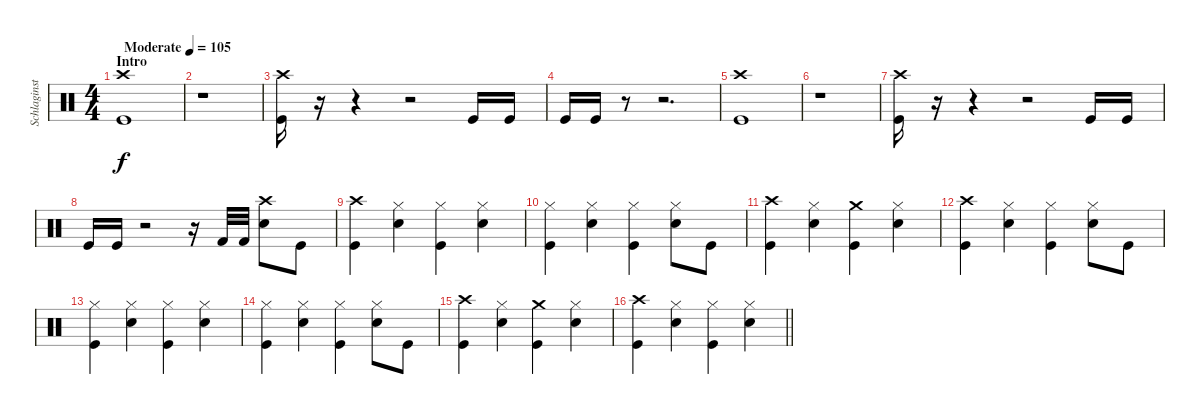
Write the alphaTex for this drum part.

\track ("Schlaginstrumente - Auswahl" "Schlaginst") {instrument percussion}
\staff {score}
\articulation defaults
\ts (4 4)
\section ("" "Intro")
\tempo (105 "Moderate")
\clef neutral
\ks c
("Crash high (hit)" "Kick (hit)").1{dy f} |
r.1 |
("Crash high (hit)" "Kick (hit)").16 r.16 r.4 r.2 "Kick (hit)".16 "Kick (hit)".16 |
"Kick (hit)".16 "Kick (hit)".16 r.8 r.2{d} |
("Crash high (hit)" "Kick (hit)").1 |
r.1 |
("Crash high (hit)" "Kick (hit)").16 r.16 r.4 r.2 "Kick (hit)".16 "Kick (hit)".16 |
"Kick (hit)".16 "Kick (hit)".16 r.2 r.16 "Kick (hit) 2".32 "Kick (hit) 2".32 ("Snare (hit) 2" "Crash high (hit)").8 "Kick (hit)".8 |
("Crash high (hit)" "Kick (hit)").4 ("Hi-Hat (closed)" "Snare (hit) 2").4 ("Kick (hit)" "Hi-Hat (closed)").4 ("Snare (hit) 2" "Hi-Hat (closed)").4 |
("Kick (hit)" "Hi-Hat (closed)").4 ("Hi-Hat (closed)" "Snare (hit) 2").4 ("Kick (hit)" "Hi-Hat (closed)").4 ("Snare (hit) 2" "Hi-Hat (closed)").8 "Kick (hit)".8 |
("Crash high (hit)" "Kick (hit)").4 ("Hi-Hat (closed)" "Snare (hit) 2").4 ("Kick (hit)" "Crash medium (hit)").4 ("Snare (hit) 2" "Hi-Hat (closed)").4 |
("Crash high (hit)" "Kick (hit)").4 ("Hi-Hat (closed)" "Snare (hit) 2").4 ("Kick (hit)" "Hi-Hat (closed)").4 ("Snare (hit) 2" "Hi-Hat (closed)").8 "Kick (hit)".8 |
("Kick (hit)" "Hi-Hat (closed)").4 ("Hi-Hat (closed)" "Snare (hit) 2").4 ("Kick (hit)" "Hi-Hat (closed)").4 ("Snare (hit) 2" "Hi-Hat (closed)").4 |
("Kick (hit)" "Hi-Hat (closed)").4 ("Hi-Hat (closed)" "Snare (hit) 2").4 ("Kick (hit)" "Hi-Hat (closed)").4 ("Snare (hit) 2" "Hi-Hat (closed)").8 "Kick (hit)".8 |
("Crash high (hit)" "Kick (hit)").4 ("Hi-Hat (closed)" "Snare (hit) 2").4 ("Kick (hit)" "Crash medium (hit)").4 ("Snare (hit) 2" "Hi-Hat (closed)").4 |
\barLineRight lightlight
("Crash high (hit)" "Kick (hit)").4 ("Hi-Hat (closed)" "Snare (hit) 2").4 ("Kick (hit)" "Hi-Hat (closed)").4 ("Snare (hit) 2" "Hi-Hat (closed)").4
